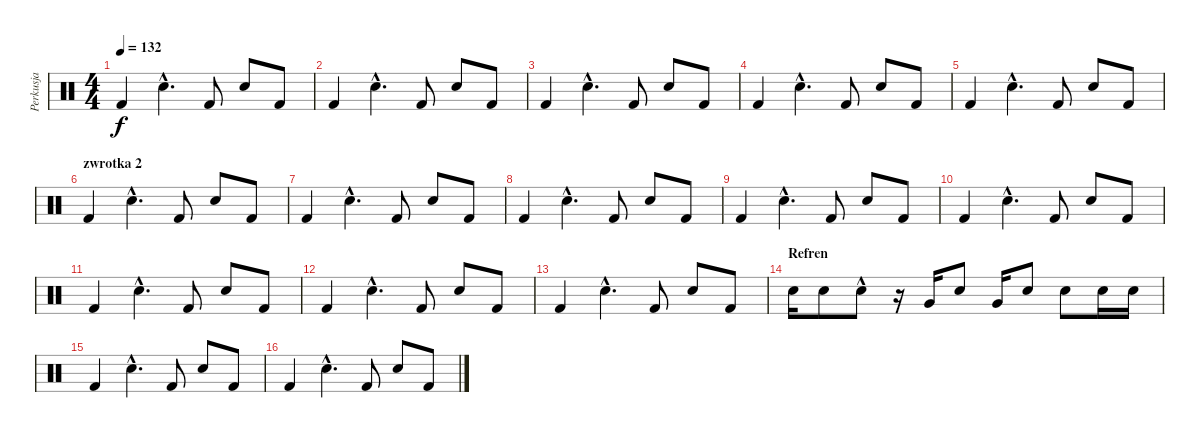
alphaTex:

\track ("Perkusja" "Perkusja") {instrument percussion}
\staff {score}
\articulation defaults
\ts (4 4)
\tempo 132
\clef neutral
\ks c "Kick (hit) 2".4{dy f} "Snare (hit) 2"{hac}.4{d} "Kick (hit) 2".8 "Snare (hit) 2".8 "Kick (hit) 2".8
|
"Kick (hit) 2".4 "Snare (hit) 2"{hac}.4{d} "Kick (hit) 2".8 "Snare (hit) 2".8 "Kick (hit) 2".8 |
"Kick (hit) 2".4 "Snare (hit) 2"{hac}.4{d} "Kick (hit) 2".8 "Snare (hit) 2".8 "Kick (hit) 2".8 |
"Kick (hit) 2".4 "Snare (hit) 2"{hac}.4{d} "Kick (hit) 2".8 "Snare (hit) 2".8 "Kick (hit) 2".8 |
"Kick (hit) 2".4 "Snare (hit) 2"{hac}.4{d} "Kick (hit) 2".8 "Snare (hit) 2".8 "Kick (hit) 2".8 |
\section ("" "zwrotka 2")
"Kick (hit) 2".4 "Snare (hit) 2"{hac}.4{d} "Kick (hit) 2".8 "Snare (hit) 2".8 "Kick (hit) 2".8 |
"Kick (hit) 2".4 "Snare (hit) 2"{hac}.4{d} "Kick (hit) 2".8 "Snare (hit) 2".8 "Kick (hit) 2".8 |
"Kick (hit) 2".4 "Snare (hit) 2"{hac}.4{d} "Kick (hit) 2".8 "Snare (hit) 2".8 "Kick (hit) 2".8 |
"Kick (hit) 2".4 "Snare (hit) 2"{hac}.4{d} "Kick (hit) 2".8 "Snare (hit) 2".8 "Kick (hit) 2".8 |
"Kick (hit) 2".4 "Snare (hit) 2"{hac}.4{d} "Kick (hit) 2".8 "Snare (hit) 2".8 "Kick (hit) 2".8 |
"Kick (hit) 2".4 "Snare (hit) 2"{hac}.4{d} "Kick (hit) 2".8 "Snare (hit) 2".8 "Kick (hit) 2".8 |
"Kick (hit) 2".4 "Snare (hit) 2"{hac}.4{d} "Kick (hit) 2".8 "Snare (hit) 2".8 "Kick (hit) 2".8 |
"Kick (hit) 2".4 "Snare (hit) 2"{hac}.4{d} "Kick (hit) 2".8 "Snare (hit) 2".8 "Kick (hit) 2".8 |
\section ("" "Refren")
"Snare (hit) 2".16 "Snare (hit) 2".8 "Snare (hit) 2"{hac}.8 r.16 "Very Low Tom (hit)".16 "Snare (hit) 2".8 "Very Low Tom (hit)".16 "Snare (hit) 2".8 "Snare (hit) 2".8 "Snare (hit) 2".16 "Snare (hit) 2".16 |
"Kick (hit) 2".4 "Snare (hit) 2"{hac}.4{d} "Kick (hit) 2".8 "Snare (hit) 2".8 "Kick (hit) 2".8 |
"Kick (hit) 2".4 "Snare (hit) 2"{hac}.4{d} "Kick (hit) 2".8 "Snare (hit) 2".8 "Kick (hit) 2".8
